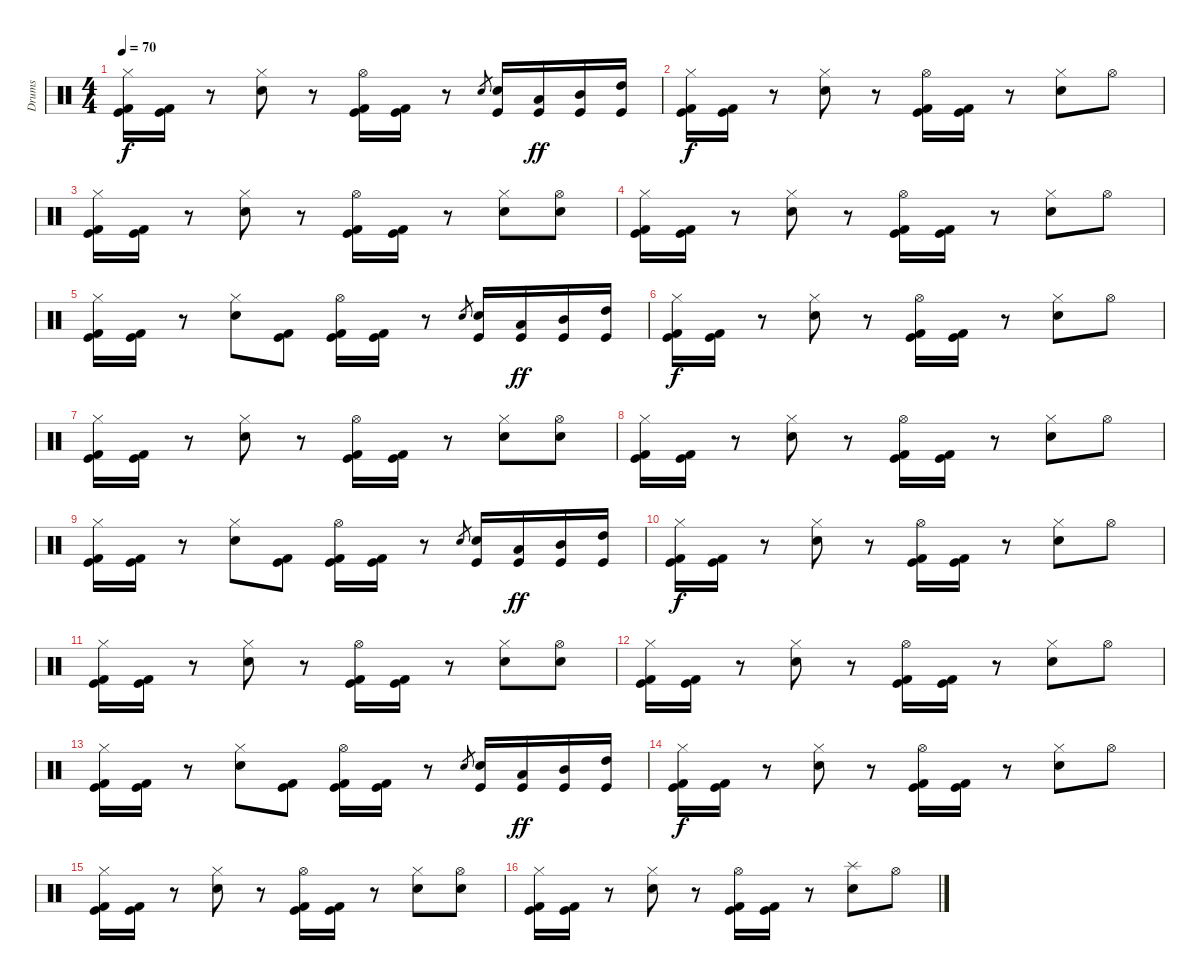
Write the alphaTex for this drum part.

\track ("Drums" "Drums") {instrument percussion}
\staff {score}
\articulation defaults
\ts (4 4)
\tempo 70
\clef neutral
\ks c
("Hi-Hat (closed)" "Kick (hit) 2" "Kick (hit)").16{dy f} ("Kick (hit) 2" "Kick (hit)").16 r.8 ("Hi-Hat (closed)" "Electric Snare (hit)").8 r.8 ("Hi-Hat (open)" "Kick (hit) 2" "Kick (hit)").16 ("Kick (hit) 2" "Kick (hit)").16 r.8 "Electric Snare (hit)".8{gr} ("Electric Snare (hit)" "Kick (hit)").16 ("Low Tom (hit)" "Kick (hit)").16{dy ff} ("Mid Tom (hit)" "Kick (hit)").16 ("High Tom (hit)" "Kick (hit)").16 |
("Hi-Hat (closed)" "Kick (hit) 2" "Kick (hit)").16{dy f} ("Kick (hit) 2" "Kick (hit)").16 r.8 ("Hi-Hat (closed)" "Electric Snare (hit)").8 r.8 ("Hi-Hat (open)" "Kick (hit) 2" "Kick (hit)").16 ("Kick (hit) 2" "Kick (hit)").16 r.8 ("Hi-Hat (closed)" "Electric Snare (hit)").8 "Hi-Hat (open)".8 |
("Hi-Hat (closed)" "Kick (hit) 2" "Kick (hit)").16 ("Kick (hit) 2" "Kick (hit)").16 r.8 ("Hi-Hat (closed)" "Electric Snare (hit)").8 r.8 ("Hi-Hat (open)" "Kick (hit) 2" "Kick (hit)").16 ("Kick (hit) 2" "Kick (hit)").16 r.8 ("Hi-Hat (closed)" "Electric Snare (hit)").8 ("Hi-Hat (open)" "Electric Snare (hit)").8 |
("Hi-Hat (closed)" "Kick (hit) 2" "Kick (hit)").16 ("Kick (hit) 2" "Kick (hit)").16 r.8 ("Hi-Hat (closed)" "Electric Snare (hit)").8 r.8 ("Hi-Hat (open)" "Kick (hit) 2" "Kick (hit)").16 ("Kick (hit) 2" "Kick (hit)").16 r.8 ("Hi-Hat (closed)" "Electric Snare (hit)").8 "Hi-Hat (open)".8 |
("Hi-Hat (closed)" "Kick (hit) 2" "Kick (hit)").16 ("Kick (hit) 2" "Kick (hit)").16 r.8 ("Hi-Hat (closed)" "Electric Snare (hit)").8 ("Kick (hit) 2" "Kick (hit)").8 ("Hi-Hat (open)" "Kick (hit) 2" "Kick (hit)").16 ("Kick (hit) 2" "Kick (hit)").16 r.8 "Electric Snare (hit)".8{gr} ("Electric Snare (hit)" "Kick (hit)").16 ("Low Tom (hit)" "Kick (hit)").16{dy ff} ("Mid Tom (hit)" "Kick (hit)").16 ("High Tom (hit)" "Kick (hit)").16 |
("Hi-Hat (closed)" "Kick (hit) 2" "Kick (hit)").16{dy f} ("Kick (hit) 2" "Kick (hit)").16 r.8 ("Hi-Hat (closed)" "Electric Snare (hit)").8 r.8 ("Hi-Hat (open)" "Kick (hit) 2" "Kick (hit)").16 ("Kick (hit) 2" "Kick (hit)").16 r.8 ("Hi-Hat (closed)" "Electric Snare (hit)").8 "Hi-Hat (open)".8 |
("Hi-Hat (closed)" "Kick (hit) 2" "Kick (hit)").16 ("Kick (hit) 2" "Kick (hit)").16 r.8 ("Hi-Hat (closed)" "Electric Snare (hit)").8 r.8 ("Hi-Hat (open)" "Kick (hit) 2" "Kick (hit)").16 ("Kick (hit) 2" "Kick (hit)").16 r.8 ("Hi-Hat (closed)" "Electric Snare (hit)").8 ("Hi-Hat (open)" "Electric Snare (hit)").8 |
("Hi-Hat (closed)" "Kick (hit) 2" "Kick (hit)").16 ("Kick (hit) 2" "Kick (hit)").16 r.8 ("Hi-Hat (closed)" "Electric Snare (hit)").8 r.8 ("Hi-Hat (open)" "Kick (hit) 2" "Kick (hit)").16 ("Kick (hit) 2" "Kick (hit)").16 r.8 ("Hi-Hat (closed)" "Electric Snare (hit)").8 "Hi-Hat (open)".8 |
("Hi-Hat (closed)" "Kick (hit) 2" "Kick (hit)").16 ("Kick (hit) 2" "Kick (hit)").16 r.8 ("Hi-Hat (closed)" "Electric Snare (hit)").8 ("Kick (hit) 2" "Kick (hit)").8 ("Hi-Hat (open)" "Kick (hit) 2" "Kick (hit)").16 ("Kick (hit) 2" "Kick (hit)").16 r.8 "Electric Snare (hit)".8{gr} ("Electric Snare (hit)" "Kick (hit)").16 ("Low Tom (hit)" "Kick (hit)").16{dy ff} ("Mid Tom (hit)" "Kick (hit)").16 ("High Tom (hit)" "Kick (hit)").16 |
("Hi-Hat (closed)" "Kick (hit) 2" "Kick (hit)").16{dy f} ("Kick (hit) 2" "Kick (hit)").16 r.8 ("Hi-Hat (closed)" "Electric Snare (hit)").8 r.8 ("Hi-Hat (open)" "Kick (hit) 2" "Kick (hit)").16 ("Kick (hit) 2" "Kick (hit)").16 r.8 ("Hi-Hat (closed)" "Electric Snare (hit)").8 "Hi-Hat (open)".8 |
("Hi-Hat (closed)" "Kick (hit) 2" "Kick (hit)").16 ("Kick (hit) 2" "Kick (hit)").16 r.8 ("Hi-Hat (closed)" "Electric Snare (hit)").8 r.8 ("Hi-Hat (open)" "Kick (hit) 2" "Kick (hit)").16 ("Kick (hit) 2" "Kick (hit)").16 r.8 ("Hi-Hat (closed)" "Electric Snare (hit)").8 ("Hi-Hat (open)" "Electric Snare (hit)").8 |
("Hi-Hat (closed)" "Kick (hit) 2" "Kick (hit)").16 ("Kick (hit) 2" "Kick (hit)").16 r.8 ("Hi-Hat (closed)" "Electric Snare (hit)").8 r.8 ("Hi-Hat (open)" "Kick (hit) 2" "Kick (hit)").16 ("Kick (hit) 2" "Kick (hit)").16 r.8 ("Hi-Hat (closed)" "Electric Snare (hit)").8 "Hi-Hat (open)".8 |
("Hi-Hat (closed)" "Kick (hit) 2" "Kick (hit)").16 ("Kick (hit) 2" "Kick (hit)").16 r.8 ("Hi-Hat (closed)" "Electric Snare (hit)").8 ("Kick (hit) 2" "Kick (hit)").8 ("Hi-Hat (open)" "Kick (hit) 2" "Kick (hit)").16 ("Kick (hit) 2" "Kick (hit)").16 r.8 "Electric Snare (hit)".8{gr} ("Electric Snare (hit)" "Kick (hit)").16 ("Low Tom (hit)" "Kick (hit)").16{dy ff} ("Mid Tom (hit)" "Kick (hit)").16 ("High Tom (hit)" "Kick (hit)").16 |
("Hi-Hat (closed)" "Kick (hit) 2" "Kick (hit)").16{dy f} ("Kick (hit) 2" "Kick (hit)").16 r.8 ("Hi-Hat (closed)" "Electric Snare (hit)").8 r.8 ("Hi-Hat (open)" "Kick (hit) 2" "Kick (hit)").16 ("Kick (hit) 2" "Kick (hit)").16 r.8 ("Hi-Hat (closed)" "Electric Snare (hit)").8 "Hi-Hat (open)".8 |
("Hi-Hat (closed)" "Kick (hit) 2" "Kick (hit)").16 ("Kick (hit) 2" "Kick (hit)").16 r.8 ("Hi-Hat (closed)" "Electric Snare (hit)").8 r.8 ("Hi-Hat (open)" "Kick (hit) 2" "Kick (hit)").16 ("Kick (hit) 2" "Kick (hit)").16 r.8 ("Hi-Hat (closed)" "Electric Snare (hit)").8 ("Hi-Hat (open)" "Electric Snare (hit)").8 |
("Hi-Hat (closed)" "Kick (hit) 2" "Kick (hit)").16 ("Kick (hit) 2" "Kick (hit)").16 r.8 ("Hi-Hat (closed)" "Electric Snare (hit)").8 r.8 ("Hi-Hat (open)" "Kick (hit) 2" "Kick (hit)").16 ("Kick (hit) 2" "Kick (hit)").16 r.8 ("Splash (hit)" "Electric Snare (hit)").8 "Hi-Hat (open)".8
